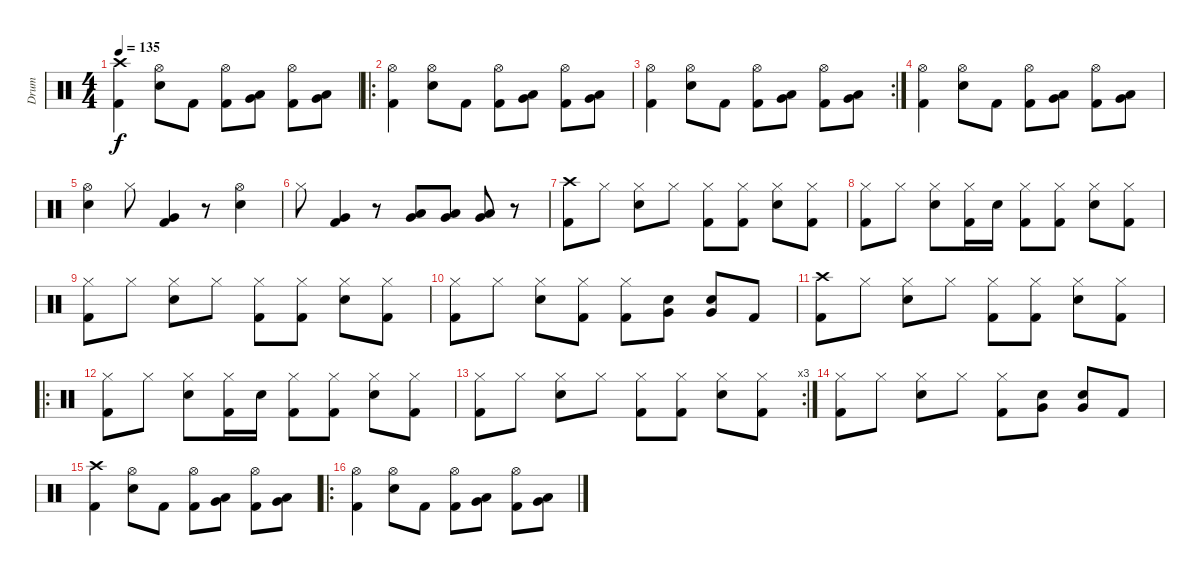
\track ("Drum" "Drum") {instrument percussion}
\staff {score}
\articulation defaults
\ts (4 4)
\tempo 135
\clef neutral
\ks c
("Crash high (hit)" "Kick (hit) 2").4{dy f} ("Hi-Hat (open)" "Snare (hit) 2").8 "Kick (hit) 2".8 ("Hi-Hat (open)" "Kick (hit) 2").8 ("Low Tom (hit)" "Very Low Tom (hit)").8 ("Hi-Hat (open)" "Kick (hit) 2").8 ("Low Tom (hit)" "Very Low Tom (hit)").8 |
\ro
("Hi-Hat (open)" "Kick (hit) 2").4 ("Hi-Hat (open)" "Snare (hit) 2").8 "Kick (hit) 2".8 ("Hi-Hat (open)" "Kick (hit) 2").8 ("Low Tom (hit)" "Very Low Tom (hit)").8 ("Hi-Hat (open)" "Kick (hit) 2").8 ("Low Tom (hit)" "Very Low Tom (hit)").8 |
\rc 2
("Hi-Hat (open)" "Kick (hit) 2").4 ("Hi-Hat (open)" "Snare (hit) 2").8 "Kick (hit) 2".8 ("Hi-Hat (open)" "Kick (hit) 2").8 ("Low Tom (hit)" "Very Low Tom (hit)").8 ("Hi-Hat (open)" "Kick (hit) 2").8 ("Low Tom (hit)" "Very Low Tom (hit)").8 |
("Hi-Hat (open)" "Kick (hit) 2").4 ("Hi-Hat (open)" "Snare (hit) 2").8 "Kick (hit) 2".8 ("Hi-Hat (open)" "Kick (hit) 2").8 ("Low Tom (hit)" "Very Low Tom (hit)").8 ("Hi-Hat (open)" "Kick (hit) 2").8 ("Low Tom (hit)" "Very Low Tom (hit)").8 |
("Hi-Hat (open)" "Snare (hit) 2").4 "Hi-Hat (closed)".8 ("Very Low Tom (hit)" "Kick (hit) 2").4 r.8 ("Hi-Hat (open)" "Snare (hit) 2").4 |
"Hi-Hat (closed)".8 ("Very Low Tom (hit)" "Kick (hit) 2").4 r.8 ("Low Tom (hit)" "Very Low Tom (hit)").8 ("Low Tom (hit)" "Very Low Tom (hit)").8 ("Low Tom (hit)" "Very Low Tom (hit)").8 r.8 |
("Crash high (hit)" "Kick (hit) 2").8 "Hi-Hat (closed)".8 ("Hi-Hat (closed)" "Snare (hit) 2").8 "Hi-Hat (closed)".8 ("Hi-Hat (closed)" "Kick (hit) 2").8 ("Hi-Hat (closed)" "Kick (hit) 2").8 ("Hi-Hat (closed)" "Snare (hit) 2").8 ("Hi-Hat (closed)" "Kick (hit) 2").8 |
("Hi-Hat (closed)" "Kick (hit) 2").8 "Hi-Hat (closed)".8 ("Hi-Hat (closed)" "Snare (hit) 2").8 ("Hi-Hat (closed)" "Kick (hit) 2").16 "Snare (hit) 2".16 ("Hi-Hat (closed)" "Kick (hit) 2").8 ("Hi-Hat (closed)" "Kick (hit) 2").8 ("Hi-Hat (closed)" "Snare (hit) 2").8 ("Hi-Hat (closed)" "Kick (hit) 2").8 |
("Hi-Hat (closed)" "Kick (hit) 2").8 "Hi-Hat (closed)".8 ("Hi-Hat (closed)" "Snare (hit) 2").8 "Hi-Hat (closed)".8 ("Hi-Hat (closed)" "Kick (hit) 2").8 ("Hi-Hat (closed)" "Kick (hit) 2").8 ("Hi-Hat (closed)" "Snare (hit) 2").8 ("Hi-Hat (closed)" "Kick (hit) 2").8 |
("Hi-Hat (closed)" "Kick (hit) 2").8 "Hi-Hat (closed)".8 ("Hi-Hat (closed)" "Snare (hit) 2").8 ("Hi-Hat (closed)" "Kick (hit) 2").8 ("Hi-Hat (closed)" "Kick (hit) 2").8 ("Very Low Tom (hit)" "Snare (hit) 2").8 ("Very Low Tom (hit)" "Snare (hit) 2").8 "Kick (hit) 2".8 |
("Crash high (hit)" "Kick (hit) 2").8 "Hi-Hat (closed)".8 ("Hi-Hat (closed)" "Snare (hit) 2").8 "Hi-Hat (closed)".8 ("Hi-Hat (closed)" "Kick (hit) 2").8 ("Hi-Hat (closed)" "Kick (hit) 2").8 ("Hi-Hat (closed)" "Snare (hit) 2").8 ("Hi-Hat (closed)" "Kick (hit) 2").8 |
\ro
("Hi-Hat (closed)" "Kick (hit) 2").8 "Hi-Hat (closed)".8 ("Hi-Hat (closed)" "Snare (hit) 2").8 ("Hi-Hat (closed)" "Kick (hit) 2").16 "Snare (hit) 2".16 ("Hi-Hat (closed)" "Kick (hit) 2").8 ("Hi-Hat (closed)" "Kick (hit) 2").8 ("Hi-Hat (closed)" "Snare (hit) 2").8 ("Hi-Hat (closed)" "Kick (hit) 2").8 |
\rc 3
("Hi-Hat (closed)" "Kick (hit) 2").8 "Hi-Hat (closed)".8 ("Hi-Hat (closed)" "Snare (hit) 2").8 "Hi-Hat (closed)".8 ("Hi-Hat (closed)" "Kick (hit) 2").8 ("Hi-Hat (closed)" "Kick (hit) 2").8 ("Hi-Hat (closed)" "Snare (hit) 2").8 ("Hi-Hat (closed)" "Kick (hit) 2").8 |
("Hi-Hat (closed)" "Kick (hit) 2").8 "Hi-Hat (closed)".8 ("Hi-Hat (closed)" "Snare (hit) 2").8 "Hi-Hat (closed)".8 ("Hi-Hat (closed)" "Kick (hit) 2").8 ("Very Low Tom (hit)" "Snare (hit) 2").8 ("Very Low Tom (hit)" "Snare (hit) 2").8 "Kick (hit) 2".8 |
("Crash high (hit)" "Kick (hit) 2").4 ("Hi-Hat (open)" "Snare (hit) 2").8 "Kick (hit) 2".8 ("Hi-Hat (open)" "Kick (hit) 2").8 ("Low Tom (hit)" "Very Low Tom (hit)").8 ("Hi-Hat (open)" "Kick (hit) 2").8 ("Low Tom (hit)" "Very Low Tom (hit)").8 |
\ro
("Hi-Hat (open)" "Kick (hit) 2").4 ("Hi-Hat (open)" "Snare (hit) 2").8 "Kick (hit) 2".8 ("Hi-Hat (open)" "Kick (hit) 2").8 ("Low Tom (hit)" "Very Low Tom (hit)").8 ("Hi-Hat (open)" "Kick (hit) 2").8 ("Low Tom (hit)" "Very Low Tom (hit)").8
